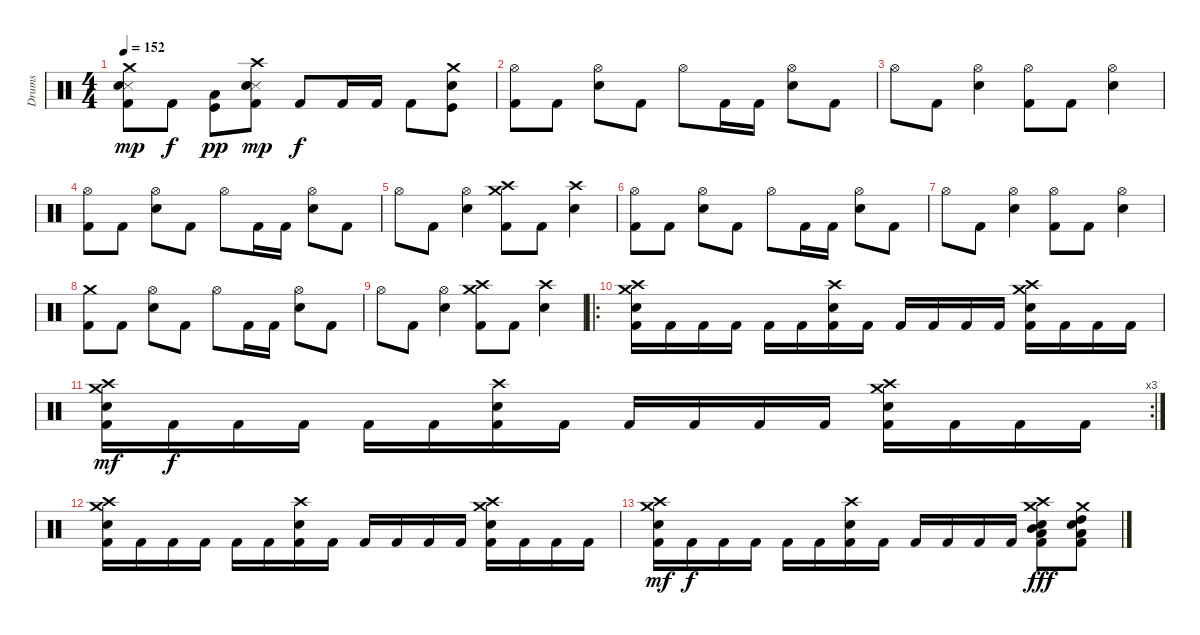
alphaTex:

\track ("Drums" "Drums") {instrument percussion}
\staff {score}
\articulation defaults
\ts (4 4)
\tempo 152
\clef neutral
\ks c
("Crash medium (hit)" "Snare (side stick) 3" "Snare (hit) 2" "Kick (hit) 2").8{dy mp} "Kick (hit) 2".8{dy f} ("Low Tom (hit)" "Kick (hit)").8{dy pp} ("Crash high (hit)" "Snare (side stick) 3" "Snare (hit) 2" "Kick (hit) 2").8{dy mp} "Kick (hit) 2".8{dy f} "Kick (hit) 2".16 "Kick (hit) 2".16 "Kick (hit) 2".8 ("Crash medium (hit)" "Snare (hit) 2" "Kick (hit)").8 |
("Hi-Hat (open)" "Kick (hit) 2").8{volume 13} "Kick (hit) 2".8 ("Hi-Hat (open)" "Snare (hit) 2").8 "Kick (hit) 2".8 "Hi-Hat (open)".8 "Kick (hit) 2".16 "Kick (hit) 2".16 ("Hi-Hat (open)" "Snare (hit) 2").8 "Kick (hit) 2".8 |
"Hi-Hat (open)".8 "Kick (hit) 2".8 ("Hi-Hat (open)" "Snare (hit) 2").4 ("Hi-Hat (open)" "Kick (hit) 2").8 "Kick (hit) 2".8 ("Hi-Hat (open)" "Snare (hit) 2").4 |
("Hi-Hat (open)" "Kick (hit) 2").8 "Kick (hit) 2".8 ("Hi-Hat (open)" "Snare (hit) 2").8 "Kick (hit) 2".8 "Hi-Hat (open)".8 "Kick (hit) 2".16 "Kick (hit) 2".16 ("Hi-Hat (open)" "Snare (hit) 2").8 "Kick (hit) 2".8 |
"Hi-Hat (open)".8 "Kick (hit) 2".8 ("Hi-Hat (open)" "Snare (hit) 2").4 ("Crash high (hit)" "Crash medium (hit)" "Kick (hit) 2").8 "Kick (hit) 2".8 ("Crash high (hit)" "Snare (hit) 2").4 |
("Hi-Hat (open)" "Kick (hit) 2").8 "Kick (hit) 2".8 ("Hi-Hat (open)" "Snare (hit) 2").8 "Kick (hit) 2".8 "Hi-Hat (open)".8 "Kick (hit) 2".16 "Kick (hit) 2".16 ("Hi-Hat (open)" "Snare (hit) 2").8 "Kick (hit) 2".8 |
"Hi-Hat (open)".8 "Kick (hit) 2".8 ("Hi-Hat (open)" "Snare (hit) 2").4 ("Hi-Hat (open)" "Kick (hit) 2").8 "Kick (hit) 2".8 ("Hi-Hat (open)" "Snare (hit) 2").4 |
("Crash medium (hit)" "Kick (hit) 2").8 "Kick (hit) 2".8 ("Hi-Hat (open)" "Snare (hit) 2").8 "Kick (hit) 2".8 "Hi-Hat (open)".8 "Kick (hit) 2".16 "Kick (hit) 2".16 ("Hi-Hat (open)" "Snare (hit) 2").8 "Kick (hit) 2".8 |
"Hi-Hat (open)".8 "Kick (hit) 2".8 ("Hi-Hat (open)" "Snare (hit) 2").4 ("Crash high (hit)" "Crash medium (hit)" "Kick (hit) 2").8 "Kick (hit) 2".8 ("Crash high (hit)" "Snare (hit) 2").4 |
\ro
("Crash medium (hit)" "Crash high (hit)" "Snare (hit) 2" "Kick (hit) 2").16 "Kick (hit) 2".16 "Kick (hit) 2".16 "Kick (hit) 2".16 "Kick (hit) 2".16 "Kick (hit) 2".16 ("Crash high (hit)" "Snare (hit) 2" "Kick (hit) 2").16 "Kick (hit) 2".16 "Kick (hit) 2".16 "Kick (hit) 2".16 "Kick (hit) 2".16 "Kick (hit) 2".16 ("Crash medium (hit)" "Crash high (hit)" "Snare (hit) 2" "Kick (hit) 2").16 "Kick (hit) 2".16 "Kick (hit) 2".16 "Kick (hit) 2".16 |
\rc 3
("Crash medium (hit)" "Crash high (hit)" "Snare (hit) 2" "Kick (hit) 2").16{dy mf} "Kick (hit) 2".16{dy f} "Kick (hit) 2".16 "Kick (hit) 2".16 "Kick (hit) 2".16 "Kick (hit) 2".16 ("Crash high (hit)" "Snare (hit) 2" "Kick (hit) 2").16 "Kick (hit) 2".16 "Kick (hit) 2".16 "Kick (hit) 2".16 "Kick (hit) 2".16 "Kick (hit) 2".16 ("Crash medium (hit)" "Crash high (hit)" "Snare (hit) 2" "Kick (hit) 2").16 "Kick (hit) 2".16 "Kick (hit) 2".16 "Kick (hit) 2".16 |
("Crash medium (hit)" "Crash high (hit)" "Snare (hit) 2" "Kick (hit) 2").16 "Kick (hit) 2".16 "Kick (hit) 2".16 "Kick (hit) 2".16 "Kick (hit) 2".16 "Kick (hit) 2".16 ("Crash high (hit)" "Snare (hit) 2" "Kick (hit) 2").16 "Kick (hit) 2".16 "Kick (hit) 2".16 "Kick (hit) 2".16 "Kick (hit) 2".16 "Kick (hit) 2".16 ("Crash medium (hit)" "Crash high (hit)" "Snare (hit) 2" "Kick (hit) 2").16 "Kick (hit) 2".16 "Kick (hit) 2".16 "Kick (hit) 2".16 |
("Crash medium (hit)" "Crash high (hit)" "Snare (hit) 2" "Kick (hit) 2").16{dy mf} "Kick (hit) 2".16{dy f} "Kick (hit) 2".16 "Kick (hit) 2".16 "Kick (hit) 2".16 "Kick (hit) 2".16 ("Crash high (hit)" "Snare (hit) 2" "Kick (hit) 2").16 "Kick (hit) 2".16 "Kick (hit) 2".16 "Kick (hit) 2".16 "Kick (hit) 2".16 "Kick (hit) 2".16 ("Crash medium (hit)" "Crash high (hit)" "Snare (hit) 2" "Low Tom (hit)" "Mid Tom (hit)" "Kick (hit) 2").8{dy fff} ("Crash medium (hit)" "Snare (hit) 2" "Low Tom (hit)" "High Tom (hit)" "Kick (hit) 2").8
